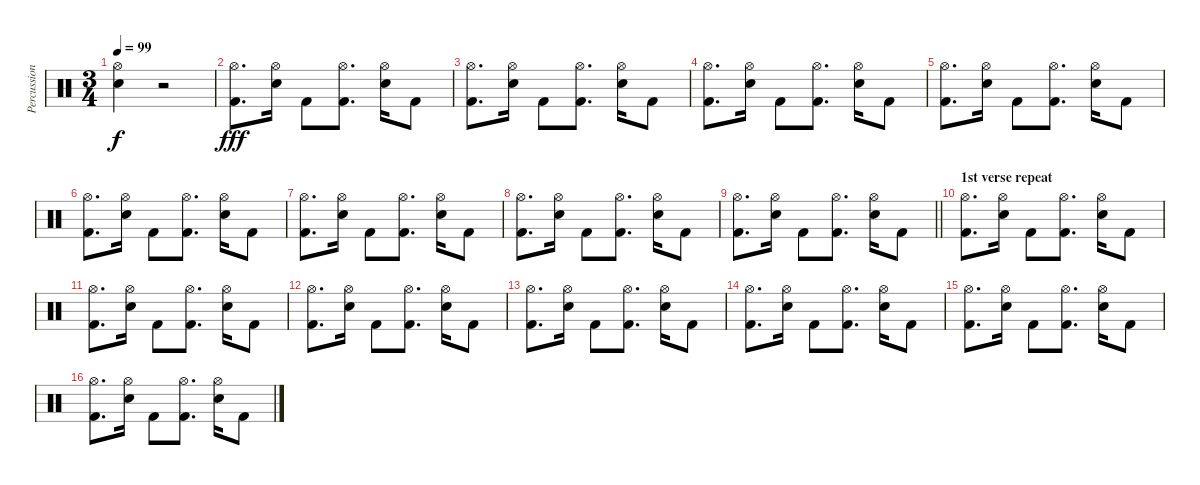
\track ("Percussion" "Percussion") {instrument percussion}
\staff {score}
\articulation defaults
\ts (3 4)
\tempo 99
\clef neutral
\ks c
("Hi-Hat (open)" "Electric Snare (hit)").4{dy f} r.2 |
("Hi-Hat (open)" "Kick (hit) 2").8{d dy fff} ("Hi-Hat (open)" "Electric Snare (hit)").16 "Kick (hit) 2".8 ("Hi-Hat (open)" "Kick (hit) 2").8{d} ("Hi-Hat (open)" "Electric Snare (hit)").16 "Kick (hit) 2".8 |
("Hi-Hat (open)" "Kick (hit) 2").8{d} ("Hi-Hat (open)" "Electric Snare (hit)").16 "Kick (hit) 2".8 ("Hi-Hat (open)" "Kick (hit) 2").8{d} ("Hi-Hat (open)" "Electric Snare (hit)").16 "Kick (hit) 2".8 |
("Hi-Hat (open)" "Kick (hit) 2").8{d} ("Hi-Hat (open)" "Electric Snare (hit)").16 "Kick (hit) 2".8 ("Hi-Hat (open)" "Kick (hit) 2").8{d} ("Hi-Hat (open)" "Electric Snare (hit)").16 "Kick (hit) 2".8 |
("Hi-Hat (open)" "Kick (hit) 2").8{d} ("Hi-Hat (open)" "Electric Snare (hit)").16 "Kick (hit) 2".8 ("Hi-Hat (open)" "Kick (hit) 2").8{d} ("Hi-Hat (open)" "Electric Snare (hit)").16 "Kick (hit) 2".8 |
("Hi-Hat (open)" "Kick (hit) 2").8{d} ("Hi-Hat (open)" "Electric Snare (hit)").16 "Kick (hit) 2".8 ("Hi-Hat (open)" "Kick (hit) 2").8{d} ("Hi-Hat (open)" "Electric Snare (hit)").16 "Kick (hit) 2".8 |
("Hi-Hat (open)" "Kick (hit) 2").8{d} ("Hi-Hat (open)" "Electric Snare (hit)").16 "Kick (hit) 2".8 ("Hi-Hat (open)" "Kick (hit) 2").8{d} ("Hi-Hat (open)" "Electric Snare (hit)").16 "Kick (hit) 2".8 |
("Hi-Hat (open)" "Kick (hit) 2").8{d} ("Hi-Hat (open)" "Electric Snare (hit)").16 "Kick (hit) 2".8 ("Hi-Hat (open)" "Kick (hit) 2").8{d} ("Hi-Hat (open)" "Electric Snare (hit)").16 "Kick (hit) 2".8 |
\barLineRight lightlight
("Hi-Hat (open)" "Kick (hit) 2").8{d} ("Hi-Hat (open)" "Electric Snare (hit)").16 "Kick (hit) 2".8 ("Hi-Hat (open)" "Kick (hit) 2").8{d} ("Hi-Hat (open)" "Electric Snare (hit)").16 "Kick (hit) 2".8 |
\section ("" "1st verse repeat")
("Hi-Hat (open)" "Kick (hit) 2").8{d} ("Hi-Hat (open)" "Electric Snare (hit)").16 "Kick (hit) 2".8 ("Hi-Hat (open)" "Kick (hit) 2").8{d} ("Hi-Hat (open)" "Electric Snare (hit)").16 "Kick (hit) 2".8 |
("Hi-Hat (open)" "Kick (hit) 2").8{d} ("Hi-Hat (open)" "Electric Snare (hit)").16 "Kick (hit) 2".8 ("Hi-Hat (open)" "Kick (hit) 2").8{d} ("Hi-Hat (open)" "Electric Snare (hit)").16 "Kick (hit) 2".8 |
("Hi-Hat (open)" "Kick (hit) 2").8{d} ("Hi-Hat (open)" "Electric Snare (hit)").16 "Kick (hit) 2".8 ("Hi-Hat (open)" "Kick (hit) 2").8{d} ("Hi-Hat (open)" "Electric Snare (hit)").16 "Kick (hit) 2".8 |
("Hi-Hat (open)" "Kick (hit) 2").8{d} ("Hi-Hat (open)" "Electric Snare (hit)").16 "Kick (hit) 2".8 ("Hi-Hat (open)" "Kick (hit) 2").8{d} ("Hi-Hat (open)" "Electric Snare (hit)").16 "Kick (hit) 2".8 |
("Hi-Hat (open)" "Kick (hit) 2").8{d} ("Hi-Hat (open)" "Electric Snare (hit)").16 "Kick (hit) 2".8 ("Hi-Hat (open)" "Kick (hit) 2").8{d} ("Hi-Hat (open)" "Electric Snare (hit)").16 "Kick (hit) 2".8 |
("Hi-Hat (open)" "Kick (hit) 2").8{d} ("Hi-Hat (open)" "Electric Snare (hit)").16 "Kick (hit) 2".8 ("Hi-Hat (open)" "Kick (hit) 2").8{d} ("Hi-Hat (open)" "Electric Snare (hit)").16 "Kick (hit) 2".8 |
("Hi-Hat (open)" "Kick (hit) 2").8{d} ("Hi-Hat (open)" "Electric Snare (hit)").16 "Kick (hit) 2".8 ("Hi-Hat (open)" "Kick (hit) 2").8{d} ("Hi-Hat (open)" "Electric Snare (hit)").16 "Kick (hit) 2".8
